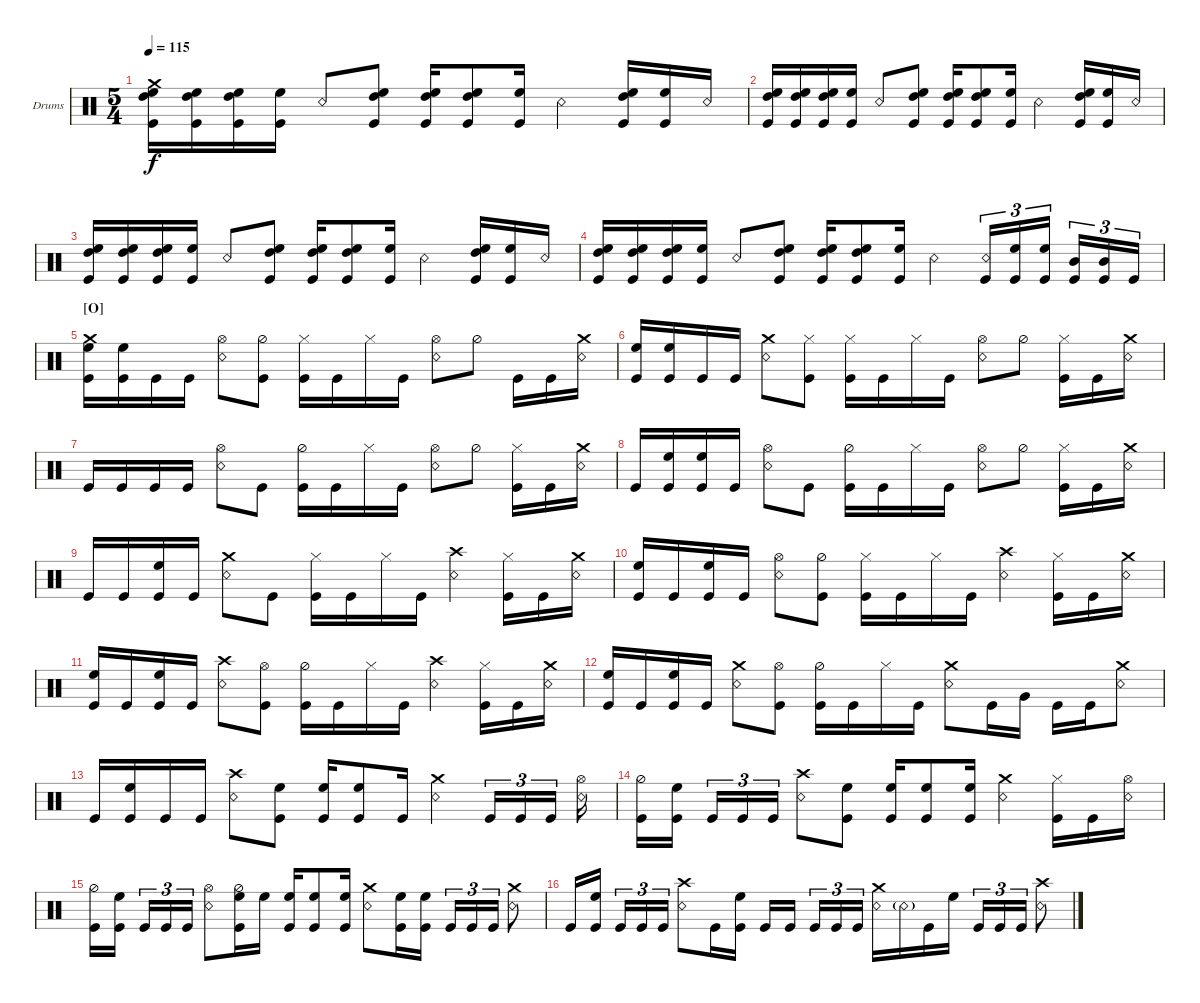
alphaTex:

\defaultSystemsLayout 4
\bracketExtendMode groupsimilarinstruments
\firstSystemTrackNameOrientation horizontal
\otherSystemsTrackNameOrientation horizontal
\track ("Drumkit" "Drums") {instrument percussion}
\staff {score}
\articulation defaults
\ts (5 4)
\tempo 115
\clef neutral
\scale
0.333333
\ks c
("Kick (hit)" "High Floor Tom (hit)" "High Tom (hit)" "Crash medium (hit)").16{dy f} ("Kick (hit)" "High Floor Tom (hit)" "High Tom (hit)").16 ("Kick (hit)" "High Floor Tom (hit)" "High Tom (hit)").16 ("Kick (hit)" "High Floor Tom (hit)").16 "Snare (rim shot)".8 ("Kick (hit)" "High Floor Tom (hit)" "High Tom (hit)").8 ("Kick (hit)" "High Floor Tom (hit)" "High Tom (hit)").16 ("Kick (hit)" "High Floor Tom (hit)" "High Tom (hit)").8 ("Kick (hit)" "High Floor Tom (hit)").16 "Snare (rim shot)".4 ("Kick (hit)" "High Floor Tom (hit)" "High Tom (hit)").16 ("Kick (hit)" "High Floor Tom (hit)").16 "Snare (rim shot)".16 |
\scale
0.333333 ("Kick (hit)" "High Floor Tom (hit)" "High Tom (hit)").16 ("Kick (hit)" "High Floor Tom (hit)" "High Tom (hit)").16 ("Kick (hit)" "High Floor Tom (hit)" "High Tom (hit)").16 ("Kick (hit)" "High Floor Tom (hit)").16 "Snare (rim shot)".8 ("Kick (hit)" "High Floor Tom (hit)" "High Tom (hit)").8 ("Kick (hit)" "High Floor Tom (hit)" "High Tom (hit)").16 ("Kick (hit)" "High Floor Tom (hit)" "High Tom (hit)").8 ("Kick (hit)" "High Floor Tom (hit)").16 "Snare (rim shot)".4 ("Kick (hit)" "High Floor Tom (hit)" "High Tom (hit)").16 ("Kick (hit)" "High Floor Tom (hit)").16 "Snare (rim shot)".16 |
\scale
0.333333 ("Kick (hit)" "High Floor Tom (hit)" "High Tom (hit)").16 ("Kick (hit)" "High Floor Tom (hit)" "High Tom (hit)").16 ("Kick (hit)" "High Floor Tom (hit)" "High Tom (hit)").16 ("Kick (hit)" "High Floor Tom (hit)").16 "Snare (rim shot)".8 ("Kick (hit)" "High Floor Tom (hit)" "High Tom (hit)").8 ("Kick (hit)" "High Floor Tom (hit)" "High Tom (hit)").16 ("Kick (hit)" "High Floor Tom (hit)" "High Tom (hit)").8 ("Kick (hit)" "High Floor Tom (hit)").16 "Snare (rim shot)".4 ("Kick (hit)" "High Floor Tom (hit)" "High Tom (hit)").16 ("Kick (hit)" "High Floor Tom (hit)").16 "Snare (rim shot)".16 |
\scale
0.333333 ("Kick (hit)" "High Floor Tom (hit)" "High Tom (hit)").16 ("Kick (hit)" "High Floor Tom (hit)" "High Tom (hit)").16 ("Kick (hit)" "High Floor Tom (hit)" "High Tom (hit)").16 ("Kick (hit)" "High Floor Tom (hit)").16 "Snare (rim shot)".8 ("Kick (hit)" "High Floor Tom (hit)" "High Tom (hit)").8 ("Kick (hit)" "High Floor Tom (hit)" "High Tom (hit)").16 ("Kick (hit)" "High Floor Tom (hit)" "High Tom (hit)").8 ("Kick (hit)" "High Floor Tom (hit)").16 "Snare (rim shot)".4 ("Kick (hit)" "Snare (rim shot)").16{tu (3 2)} ("Kick (hit)" "High Floor Tom (hit)").16{tu (3 2)} ("Kick (hit)" "High Floor Tom (hit)").16{tu (3 2)} ("Kick (hit)" "Mid Tom (hit)").16{tu (3 2)} ("Kick (hit)" "Mid Tom (hit)").16{tu (3 2)} "Kick (hit)".16{tu (3 2)} |
\section ("O" "")
\scale
0.333333 ("Kick (hit)" "High Floor Tom (hit)" "Crash medium (hit)").16 ("Kick (hit)" "High Floor Tom (hit)").16 "Kick (hit)".16 "Kick (hit)".16 ("Snare (rim shot)" "Hi-Hat (open)").8 ("Kick (hit)" "Hi-Hat (half)").8 ("Kick (hit)" "Hi-Hat (closed)").16 "Kick (hit)".16 "Hi-Hat (closed)".16 "Kick (hit)".16 ("Snare (rim shot)" "Hi-Hat (open)").8 "Hi-Hat (half)".8 "Kick (hit)".16 "Kick (hit)".16 ("Snare (rim shot)" "Crash medium (hit)").16 |
\scale
0.333333 ("Kick (hit)" "High Floor Tom (hit)").16 ("Kick (hit)" "High Floor Tom (hit)").16 "Kick (hit)".16 "Kick (hit)".16 ("Snare (rim shot)" "Crash medium (hit)").8 ("Kick (hit)" "Hi-Hat (closed)").8 ("Kick (hit)" "Hi-Hat (closed)").16 "Kick (hit)".16 "Hi-Hat (closed)".16 "Kick (hit)".16 ("Snare (rim shot)" "Hi-Hat (open)").8 "Hi-Hat (half)".8 ("Kick (hit)" "Hi-Hat (closed)").16 "Kick (hit)".16 ("Snare (rim shot)" "Crash medium (hit)").16 |
\scale
0.333333 "Kick (hit)".16 "Kick (hit)".16 "Kick (hit)".16 "Kick (hit)".16 ("Snare (rim shot)" "Hi-Hat (open)").8 "Kick (hit)".8 ("Kick (hit)" "Hi-Hat (half)").16 "Kick (hit)".16 "Hi-Hat (closed)".16 "Kick (hit)".16 ("Snare (rim shot)" "Hi-Hat (open)").8 "Hi-Hat (half)".8 ("Kick (hit)" "Hi-Hat (closed)").16 "Kick (hit)".16 ("Snare (rim shot)" "Crash medium (hit)").16 |
\scale
0.333333 "Kick (hit)".16 ("Kick (hit)" "High Floor Tom (hit)").16 ("Kick (hit)" "High Floor Tom (hit)").16 "Kick (hit)".16 ("Snare (rim shot)" "Hi-Hat (open)").8 "Kick (hit)".8 ("Kick (hit)" "Hi-Hat (half)").16 "Kick (hit)".16 "Hi-Hat (closed)".16 "Kick (hit)".16 ("Snare (rim shot)" "Hi-Hat (open)").8 "Hi-Hat (half)".8 ("Kick (hit)" "Hi-Hat (closed)").16 "Kick (hit)".16 ("Snare (rim shot)" "Crash medium (hit)").16 |
\scale
0.333333 "Kick (hit)".16 "Kick (hit)".16 ("Kick (hit)" "High Floor Tom (hit)").16 "Kick (hit)".16 ("Snare (rim shot)" "Crash medium (hit)").8 "Kick (hit)".8 ("Kick (hit)" "Hi-Hat (closed)").16 "Kick (hit)".16 "Hi-Hat (closed)".16 "Kick (hit)".16 ("Snare (rim shot)" "Crash high (hit)").4 ("Kick (hit)" "Hi-Hat (closed)").16 "Kick (hit)".16 ("Snare (rim shot)" "Crash medium (hit)").16 |
\scale
0.333333 ("Kick (hit)" "High Floor Tom (hit)").16 "Kick (hit)".16 ("Kick (hit)" "High Floor Tom (hit)").16 "Kick (hit)".16 ("Snare (rim shot)" "Hi-Hat (open)").8 ("Kick (hit)" "Hi-Hat (half)").8 ("Kick (hit)" "Hi-Hat (closed)").16 "Kick (hit)".16 "Hi-Hat (closed)".16 "Kick (hit)".16 ("Snare (rim shot)" "Crash high (hit)").4 ("Kick (hit)" "Hi-Hat (closed)").16 "Kick (hit)".16 ("Snare (rim shot)" "Crash medium (hit)").16 |
\scale
0.333333 ("Kick (hit)" "High Floor Tom (hit)").16 "Kick (hit)".16 ("Kick (hit)" "High Floor Tom (hit)").16 "Kick (hit)".16 ("Snare (rim shot)" "Crash high (hit)").8 ("Kick (hit)" "Hi-Hat (open)").8 ("Kick (hit)" "Hi-Hat (half)").16 "Kick (hit)".16 "Hi-Hat (closed)".16 "Kick (hit)".16 ("Snare (rim shot)" "Crash high (hit)").4 ("Kick (hit)" "Hi-Hat (closed)").16 "Kick (hit)".16 ("Snare (rim shot)" "Crash medium (hit)").16 |
\scale
0.333333 ("Kick (hit)" "High Floor Tom (hit)").16 "Kick (hit)".16 ("Kick (hit)" "High Floor Tom (hit)").16 "Kick (hit)".16 ("Snare (rim shot)" "Crash medium (hit)").8 ("Kick (hit)" "Hi-Hat (open)").8 ("Kick (hit)" "Hi-Hat (half)").16 "Kick (hit)".16 "Hi-Hat (closed)".16 "Kick (hit)".16 ("Snare (rim shot)" "Crash medium (hit)").8 "Kick (hit)".16 "Very Low Tom (hit)".16 "Kick (hit)".16 "Kick (hit)".16 ("Snare (rim shot)" "Crash medium (hit)").8 |
\scale
0.333333 "Kick (hit)".16 ("Kick (hit)" "High Floor Tom (hit)").16 "Kick (hit)".16 "Kick (hit)".16 ("Snare (rim shot)" "Crash high (hit)").8 ("Kick (hit)" "High Floor Tom (hit)").8 ("Kick (hit)" "High Floor Tom (hit)").16 ("Kick (hit)" "High Floor Tom (hit)").8 "Kick (hit)".16 ("Snare (rim shot)" "Crash medium (hit)").4 "Kick (hit)".16{tu (3 2)} "Kick (hit)".16{tu (3 2)} "Kick (hit)".16{tu (3 2)} ("Snare (rim shot)" "Hi-Hat (open)").16 |
\scale
0.333333 ("Kick (hit)" "Hi-Hat (half)").16 ("Kick (hit)" "High Floor Tom (hit)").16 "Kick (hit)".16{tu (3 2)} "Kick (hit)".16{tu (3 2)} "Kick (hit)".16{tu (3 2)} ("Snare (rim shot)" "Crash high (hit)").8 ("Kick (hit)" "High Floor Tom (hit)").8 ("Kick (hit)" "High Floor Tom (hit)").16 ("Kick (hit)" "High Floor Tom (hit)").8 ("Kick (hit)" "High Floor Tom (hit)").16 ("Snare (rim shot)" "Crash medium (hit)").4 ("Kick (hit)" "Hi-Hat (closed)").16 "Kick (hit)".16 ("Snare (rim shot)" "Hi-Hat (open)").16 |
\scale
0.333333 ("Kick (hit)" "Hi-Hat (half)").16 ("Kick (hit)" "High Floor Tom (hit)").16 "Kick (hit)".16{tu (3 2)} "Kick (hit)".16{tu (3 2)} "Kick (hit)".16{tu (3 2)} ("Snare (rim shot)" "Hi-Hat (open)").8 ("Kick (hit)" "High Floor Tom (hit)" "Hi-Hat (half)").16 "High Floor Tom (hit)".16 ("Kick (hit)" "High Floor Tom (hit)").16 ("Kick (hit)" "High Floor Tom (hit)").8 ("Kick (hit)" "High Floor Tom (hit)").16 ("Snare (rim shot)" "Crash medium (hit)").8 ("Kick (hit)" "High Floor Tom (hit)").16 ("Kick (hit)" "High Floor Tom (hit)").16 "Kick (hit)".16{tu (3 2)} "Kick (hit)".16{tu (3 2)} "Kick (hit)".16{tu (3 2)} ("Snare (rim shot)" "Crash medium (hit)").8 |
\scale
0.333333 "Kick (hit)".16 ("Kick (hit)" "High Floor Tom (hit)").16 "Kick (hit)".16{tu (3 2)} "Kick (hit)".16{tu (3 2)} "Kick (hit)".16{tu (3 2)} ("Snare (rim shot)" "Crash high (hit)").8 "Kick (hit)".16 ("High Floor Tom (hit)" "Kick (hit)").16 "Kick (hit)".16 "Kick (hit)".16 "Kick (hit)".16{tu (3 2)} "Kick (hit)".16{tu (3 2)} "Kick (hit)".16{tu (3 2)} ("Snare (rim shot)" "Crash medium (hit)").16 "Snare (rim shot)"{g}.16 "Kick (hit)".16 "High Floor Tom (hit)".16 "Kick (hit)".16{tu (3 2)} "Kick (hit)".16{tu (3 2)} "Kick (hit)".16{tu (3 2)} ("Snare (rim shot)" "Crash high (hit)").8
